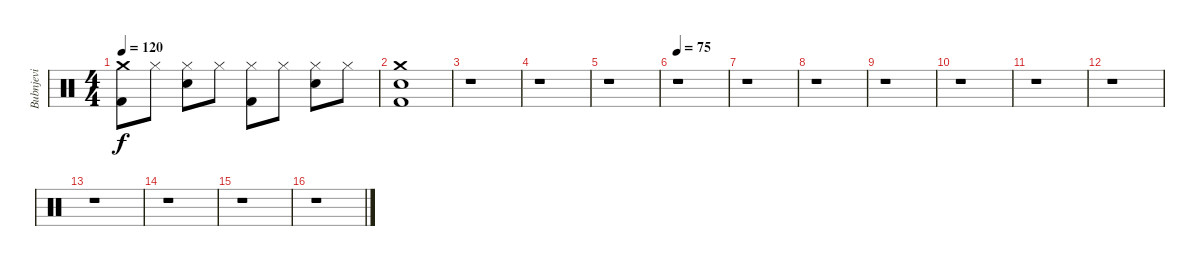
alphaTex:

\track ("Bubnjevi" "Bubnjevi") {instrument percussion}
\staff {score}
\articulation defaults
\ts (4 4)
\tempo 120
\clef neutral
\ks c
("Crash medium (hit)" "Kick (hit) 2").8{dy f} "Hi-Hat (closed)".8 ("Electric Snare (hit)" "Hi-Hat (closed)").8 "Hi-Hat (closed)".8 ("Hi-Hat (closed)" "Kick (hit) 2").8 "Hi-Hat (closed)".8 ("Electric Snare (hit)" "Hi-Hat (closed)").8 "Hi-Hat (closed)".8 |
("Crash medium (hit)" "Electric Snare (hit)" "Kick (hit) 2").1 |
r.1 |
r.1 |
r.1 |
\tempo 75
r.1 |
r.1 |
r.1 |
r.1 |
r.1 |
r.1 |
r.1 |
r.1 |
r.1 |
r.1 |
r.1
